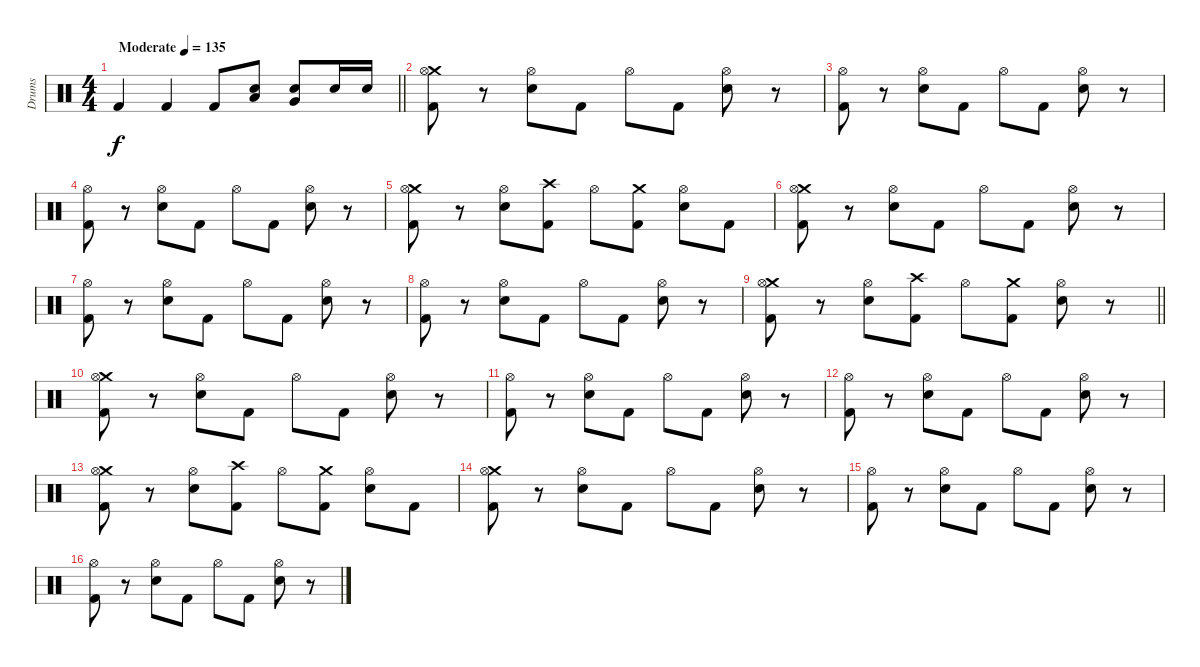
\track ("Drums" "Drums") {instrument percussion}
\staff {score}
\articulation defaults
\ts (4 4)
\tempo (135 "Moderate")
\clef neutral
\barLineRight lightlight
\ks c "Kick (hit) 2".4{dy f} "Kick (hit) 2".4 "Kick (hit) 2".8
("Electric Snare (hit)" "Low Tom (hit)").8 ("Electric Snare (hit)" "Very Low Tom (hit)").8 "Electric Snare (hit)".16 "Electric Snare (hit)".16 |
\section ("" "")
("Crash medium (hit)" "Hi-Hat (open)" "Kick (hit) 2").8 r.8 ("Hi-Hat (open)" "Electric Snare (hit)").8 "Kick (hit) 2".8 "Hi-Hat (open)".8 "Kick (hit) 2".8 ("Hi-Hat (open)" "Electric Snare (hit)").8 r.8 |
("Hi-Hat (open)" "Kick (hit) 2").8 r.8 ("Hi-Hat (open)" "Electric Snare (hit)").8 "Kick (hit) 2".8 "Hi-Hat (open)".8 "Kick (hit) 2".8 ("Hi-Hat (open)" "Electric Snare (hit)").8 r.8 |
("Hi-Hat (open)" "Kick (hit) 2").8 r.8 ("Hi-Hat (open)" "Electric Snare (hit)").8 "Kick (hit) 2".8 "Hi-Hat (open)".8 "Kick (hit) 2".8 ("Hi-Hat (open)" "Electric Snare (hit)").8 r.8 |
("Crash medium (hit)" "Hi-Hat (open)" "Kick (hit) 2").8 r.8 ("Hi-Hat (open)" "Electric Snare (hit)").8 ("Crash high (hit)" "Kick (hit) 2").8 "Hi-Hat (open)".8 ("Crash medium (hit)" "Kick (hit) 2").8 ("Hi-Hat (open)" "Electric Snare (hit)").8 "Kick (hit) 2".8 |
("Crash medium (hit)" "Hi-Hat (open)" "Kick (hit) 2").8 r.8 ("Hi-Hat (open)" "Electric Snare (hit)").8 "Kick (hit) 2".8 "Hi-Hat (open)".8 "Kick (hit) 2".8 ("Hi-Hat (open)" "Electric Snare (hit)").8 r.8 |
("Hi-Hat (open)" "Kick (hit) 2").8 r.8 ("Hi-Hat (open)" "Electric Snare (hit)").8 "Kick (hit) 2".8 "Hi-Hat (open)".8 "Kick (hit) 2".8 ("Hi-Hat (open)" "Electric Snare (hit)").8 r.8 |
("Hi-Hat (open)" "Kick (hit) 2").8 r.8 ("Hi-Hat (open)" "Electric Snare (hit)").8 "Kick (hit) 2".8 "Hi-Hat (open)".8 "Kick (hit) 2".8 ("Hi-Hat (open)" "Electric Snare (hit)").8 r.8 |
\barLineRight lightlight
("Crash medium (hit)" "Hi-Hat (open)" "Kick (hit) 2").8 r.8 ("Hi-Hat (open)" "Electric Snare (hit)").8 ("Crash high (hit)" "Kick (hit) 2").8 "Hi-Hat (open)".8 ("Crash medium (hit)" "Kick (hit) 2").8 ("Hi-Hat (open)" "Electric Snare (hit)").8 r.8 |
\section ("" "")
("Crash medium (hit)" "Hi-Hat (open)" "Kick (hit) 2").8 r.8 ("Hi-Hat (open)" "Electric Snare (hit)").8 "Kick (hit) 2".8 "Hi-Hat (open)".8 "Kick (hit) 2".8 ("Hi-Hat (open)" "Electric Snare (hit)").8 r.8 |
("Hi-Hat (open)" "Kick (hit) 2").8 r.8 ("Hi-Hat (open)" "Electric Snare (hit)").8 "Kick (hit) 2".8 "Hi-Hat (open)".8 "Kick (hit) 2".8 ("Hi-Hat (open)" "Electric Snare (hit)").8 r.8 |
("Hi-Hat (open)" "Kick (hit) 2").8 r.8 ("Hi-Hat (open)" "Electric Snare (hit)").8 "Kick (hit) 2".8 "Hi-Hat (open)".8 "Kick (hit) 2".8 ("Hi-Hat (open)" "Electric Snare (hit)").8 r.8 |
("Crash medium (hit)" "Hi-Hat (open)" "Kick (hit) 2").8 r.8 ("Hi-Hat (open)" "Electric Snare (hit)").8 ("Crash high (hit)" "Kick (hit) 2").8 "Hi-Hat (open)".8 ("Crash medium (hit)" "Kick (hit) 2").8 ("Hi-Hat (open)" "Electric Snare (hit)").8 "Kick (hit) 2".8 |
("Crash medium (hit)" "Hi-Hat (open)" "Kick (hit) 2").8 r.8 ("Hi-Hat (open)" "Electric Snare (hit)").8 "Kick (hit) 2".8 "Hi-Hat (open)".8 "Kick (hit) 2".8 ("Hi-Hat (open)" "Electric Snare (hit)").8 r.8 |
("Hi-Hat (open)" "Kick (hit) 2").8 r.8 ("Hi-Hat (open)" "Electric Snare (hit)").8 "Kick (hit) 2".8 "Hi-Hat (open)".8 "Kick (hit) 2".8 ("Hi-Hat (open)" "Electric Snare (hit)").8 r.8 |
("Hi-Hat (open)" "Kick (hit) 2").8 r.8 ("Hi-Hat (open)" "Electric Snare (hit)").8 "Kick (hit) 2".8 "Hi-Hat (open)".8 "Kick (hit) 2".8 ("Hi-Hat (open)" "Electric Snare (hit)").8 r.8
